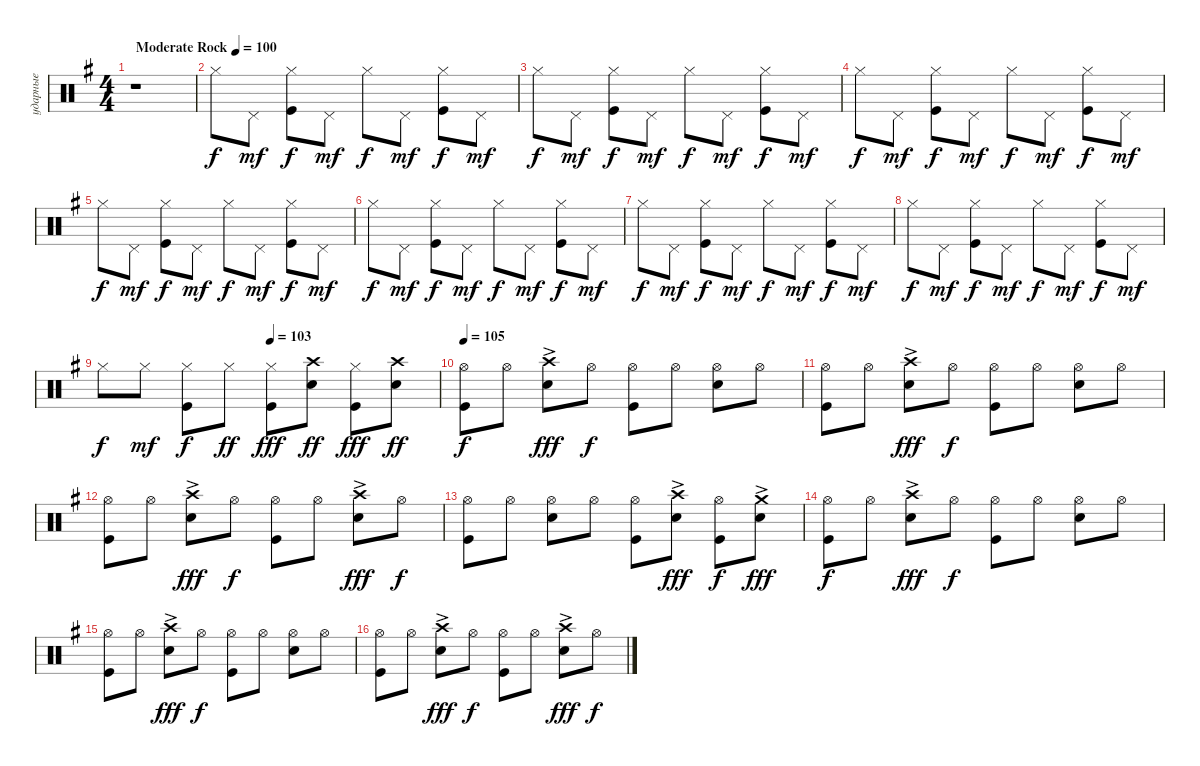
\track ("ударные" "ударные") {instrument percussion}
\staff {score}
\articulation defaults
\ts (4 4)
\tempo (100 "Moderate Rock")
\clef neutral
\ks eminor
r.1{dy f} |
"Hi-Hat (closed)".8 "Pedal Hi-Hat (hit)".8{dy mf} ("Kick (hit)" "Hi-Hat (closed)").8{dy f} "Pedal Hi-Hat (hit)".8{dy mf} "Hi-Hat (closed)".8{dy f} "Pedal Hi-Hat (hit)".8{dy mf} ("Hi-Hat (closed)" "Kick (hit)").8{dy f} "Pedal Hi-Hat (hit)".8{dy mf} |
"Hi-Hat (closed)".8{dy f} "Pedal Hi-Hat (hit)".8{dy mf} ("Kick (hit)" "Hi-Hat (closed)").8{dy f} "Pedal Hi-Hat (hit)".8{dy mf} "Hi-Hat (closed)".8{dy f} "Pedal Hi-Hat (hit)".8{dy mf} ("Hi-Hat (closed)" "Kick (hit)").8{dy f} "Pedal Hi-Hat (hit)".8{dy mf} |
"Hi-Hat (closed)".8{dy f} "Pedal Hi-Hat (hit)".8{dy mf} ("Kick (hit)" "Hi-Hat (closed)").8{dy f} "Pedal Hi-Hat (hit)".8{dy mf} "Hi-Hat (closed)".8{dy f} "Pedal Hi-Hat (hit)".8{dy mf} ("Hi-Hat (closed)" "Kick (hit)").8{dy f} "Pedal Hi-Hat (hit)".8{dy mf} |
"Hi-Hat (closed)".8{dy f} "Pedal Hi-Hat (hit)".8{dy mf} ("Kick (hit)" "Hi-Hat (closed)").8{dy f} "Pedal Hi-Hat (hit)".8{dy mf} "Hi-Hat (closed)".8{dy f} "Pedal Hi-Hat (hit)".8{dy mf} ("Hi-Hat (closed)" "Kick (hit)").8{dy f} "Pedal Hi-Hat (hit)".8{dy mf} |
"Hi-Hat (closed)".8{dy f} "Pedal Hi-Hat (hit)".8{dy mf} ("Kick (hit)" "Hi-Hat (closed)").8{dy f} "Pedal Hi-Hat (hit)".8{dy mf} "Hi-Hat (closed)".8{dy f} "Pedal Hi-Hat (hit)".8{dy mf} ("Hi-Hat (closed)" "Kick (hit)").8{dy f} "Pedal Hi-Hat (hit)".8{dy mf} |
"Hi-Hat (closed)".8{dy f} "Pedal Hi-Hat (hit)".8{dy mf} ("Kick (hit)" "Hi-Hat (closed)").8{dy f} "Pedal Hi-Hat (hit)".8{dy mf} "Hi-Hat (closed)".8{dy f} "Pedal Hi-Hat (hit)".8{dy mf} ("Hi-Hat (closed)" "Kick (hit)").8{dy f} "Pedal Hi-Hat (hit)".8{dy mf} |
"Hi-Hat (closed)".8{dy f} "Pedal Hi-Hat (hit)".8{dy mf} ("Kick (hit)" "Hi-Hat (closed)").8{dy f} "Pedal Hi-Hat (hit)".8{dy mf} "Hi-Hat (closed)".8{dy f} "Pedal Hi-Hat (hit)".8{dy mf} ("Hi-Hat (closed)" "Kick (hit)").8{dy f} "Pedal Hi-Hat (hit)".8{dy mf} |
\tempo (103 0.5)
"Hi-Hat (closed)".8{dy f} "Hi-Hat (closed)".8{dy mf} ("Kick (hit)" "Hi-Hat (closed)").8{dy f} "Hi-Hat (closed)".8{dy ff} ("Hi-Hat (closed)" "Kick (hit)").8{dy fff} ("Snare (hit) 2" "Crash high (hit)").8{dy ff} ("Hi-Hat (closed)" "Kick (hit)").8{dy fff} ("Snare (hit) 2" "Crash high (hit)").8{dy ff} |
\tempo 105
("Kick (hit)" "Hi-Hat (open)").8{dy f} "Hi-Hat (open)".8 ("Snare (hit) 2" "Crash high (hit)"{ac}).8{dy fff} "Hi-Hat (open)".8{dy f} ("Kick (hit)" "Hi-Hat (open)").8 "Hi-Hat (open)".8 ("Snare (hit) 2" "Hi-Hat (open)").8 "Hi-Hat (open)".8 |
("Kick (hit)" "Hi-Hat (open)").8 "Hi-Hat (open)".8 ("Snare (hit) 2" "Crash high (hit)"{ac}).8{dy fff} "Hi-Hat (open)".8{dy f} ("Kick (hit)" "Hi-Hat (open)").8 "Hi-Hat (open)".8 ("Snare (hit) 2" "Hi-Hat (open)").8 "Hi-Hat (open)".8 |
("Kick (hit)" "Hi-Hat (open)").8 "Hi-Hat (open)".8 ("Snare (hit) 2" "Crash high (hit)"{ac}).8{dy fff} "Hi-Hat (open)".8{dy f} ("Kick (hit)" "Hi-Hat (open)").8 "Hi-Hat (open)".8 ("Snare (hit) 2" "Crash high (hit)"{ac}).8{dy fff} "Hi-Hat (open)".8{dy f} |
("Kick (hit)" "Hi-Hat (open)").8 "Hi-Hat (open)".8 ("Snare (hit) 2" "Hi-Hat (open)").8 "Hi-Hat (open)".8 ("Kick (hit)" "Hi-Hat (open)").8 ("Snare (hit) 2" "Crash high (hit)"{ac}).8{dy fff} ("Kick (hit)" "Hi-Hat (open)").8{dy f} ("Snare (hit) 2" "Crash medium (hit)"{ac}).8{dy fff} |
("Kick (hit)" "Hi-Hat (open)").8{dy f} "Hi-Hat (open)".8 ("Snare (hit) 2" "Crash high (hit)"{ac}).8{dy fff} "Hi-Hat (open)".8{dy f} ("Kick (hit)" "Hi-Hat (open)").8 "Hi-Hat (open)".8 ("Snare (hit) 2" "Hi-Hat (open)").8 "Hi-Hat (open)".8 |
("Kick (hit)" "Hi-Hat (open)").8 "Hi-Hat (open)".8 ("Snare (hit) 2" "Crash high (hit)"{ac}).8{dy fff} "Hi-Hat (open)".8{dy f} ("Kick (hit)" "Hi-Hat (open)").8 "Hi-Hat (open)".8 ("Snare (hit) 2" "Hi-Hat (open)").8 "Hi-Hat (open)".8 |
("Kick (hit)" "Hi-Hat (open)").8 "Hi-Hat (open)".8 ("Snare (hit) 2" "Crash high (hit)"{ac}).8{dy fff} "Hi-Hat (open)".8{dy f} ("Kick (hit)" "Hi-Hat (open)").8 "Hi-Hat (open)".8 ("Snare (hit) 2" "Crash high (hit)"{ac}).8{dy fff} "Hi-Hat (open)".8{dy f}
